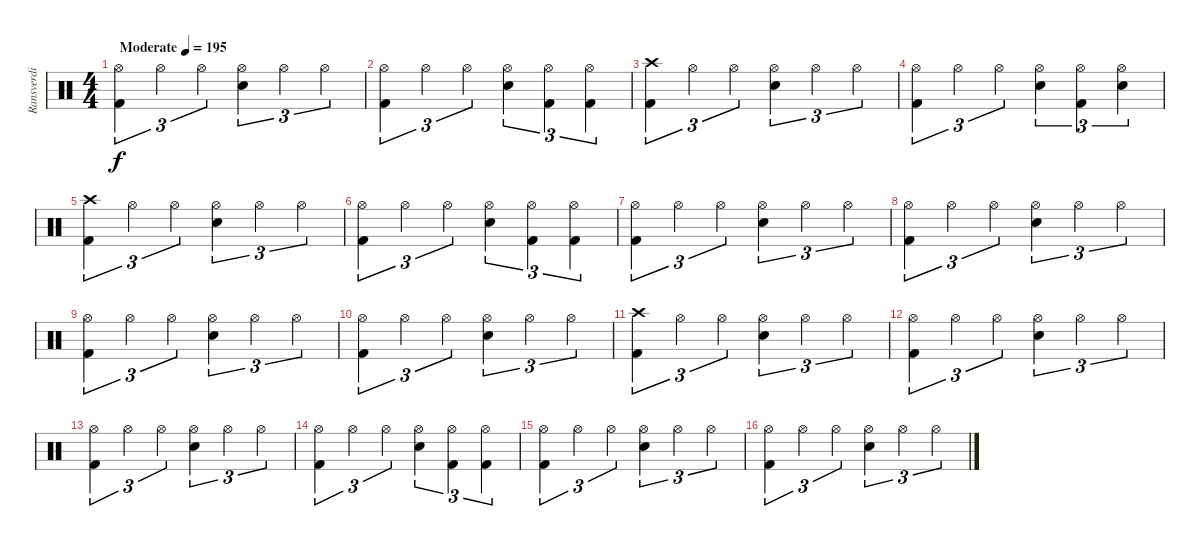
\track ("Ransverdi" "Ransverdi") {instrument percussion}
\staff {score}
\articulation defaults
\ts (4 4)
\tempo (195 "Moderate")
\clef neutral
\ks c
("Hi-Hat (open)" "Kick (hit) 2").4{tu (3 2) dy f} "Hi-Hat (open)".4{tu (3 2)} "Hi-Hat (open)".4{tu (3 2)} ("Hi-Hat (open)" "Snare (hit) 2").4{tu (3 2)} "Hi-Hat (open)".4{tu (3 2)} "Hi-Hat (open)".4{tu (3 2)} |
("Hi-Hat (open)" "Kick (hit) 2").4{tu (3 2)} "Hi-Hat (open)".4{tu (3 2)} "Hi-Hat (open)".4{tu (3 2)} ("Hi-Hat (open)" "Snare (hit) 2").4{tu (3 2)} ("Hi-Hat (open)" "Kick (hit) 2").4{tu (3 2)} ("Hi-Hat (open)" "Kick (hit) 2").4{tu (3 2)} |
("Crash high (hit)" "Kick (hit) 2").4{tu (3 2)} "Hi-Hat (open)".4{tu (3 2)} "Hi-Hat (open)".4{tu (3 2)} ("Hi-Hat (open)" "Snare (hit) 2").4{tu (3 2)} "Hi-Hat (open)".4{tu (3 2)} "Hi-Hat (open)".4{tu (3 2)} |
("Hi-Hat (open)" "Kick (hit) 2").4{tu (3 2)} "Hi-Hat (open)".4{tu (3 2)} "Hi-Hat (open)".4{tu (3 2)} ("Hi-Hat (open)" "Snare (hit) 2").4{tu (3 2)} ("Hi-Hat (open)" "Kick (hit) 2").4{tu (3 2)} ("Hi-Hat (open)" "Snare (hit) 2").4{tu (3 2)} |
("Crash high (hit)" "Kick (hit) 2").4{tu (3 2)} "Hi-Hat (open)".4{tu (3 2)} "Hi-Hat (open)".4{tu (3 2)} ("Hi-Hat (open)" "Snare (hit) 2").4{tu (3 2)} "Hi-Hat (open)".4{tu (3 2)} "Hi-Hat (open)".4{tu (3 2)} |
("Hi-Hat (open)" "Kick (hit) 2").4{tu (3 2)} "Hi-Hat (open)".4{tu (3 2)} "Hi-Hat (open)".4{tu (3 2)} ("Hi-Hat (open)" "Snare (hit) 2").4{tu (3 2)} ("Hi-Hat (open)" "Kick (hit) 2").4{tu (3 2)} ("Hi-Hat (open)" "Kick (hit) 2").4{tu (3 2)} |
("Hi-Hat (open)" "Kick (hit) 2").4{tu (3 2)} "Hi-Hat (open)".4{tu (3 2)} "Hi-Hat (open)".4{tu (3 2)} ("Hi-Hat (open)" "Snare (hit) 2").4{tu (3 2)} "Hi-Hat (open)".4{tu (3 2)} "Hi-Hat (open)".4{tu (3 2)} |
("Hi-Hat (open)" "Kick (hit) 2").4{tu (3 2)} "Hi-Hat (open)".4{tu (3 2)} "Hi-Hat (open)".4{tu (3 2)} ("Hi-Hat (open)" "Snare (hit) 2").4{tu (3 2)} "Hi-Hat (open)".4{tu (3 2)} "Hi-Hat (open)".4{tu (3 2)} |
("Hi-Hat (open)" "Kick (hit) 2").4{tu (3 2)} "Hi-Hat (open)".4{tu (3 2)} "Hi-Hat (open)".4{tu (3 2)} ("Hi-Hat (open)" "Snare (hit) 2").4{tu (3 2)} "Hi-Hat (open)".4{tu (3 2)} "Hi-Hat (open)".4{tu (3 2)} |
("Hi-Hat (open)" "Kick (hit) 2").4{tu (3 2)} "Hi-Hat (open)".4{tu (3 2)} "Hi-Hat (open)".4{tu (3 2)} ("Hi-Hat (open)" "Snare (hit) 2").4{tu (3 2)} "Hi-Hat (open)".4{tu (3 2)} "Hi-Hat (open)".4{tu (3 2)} |
("Crash high (hit)" "Kick (hit) 2").4{tu (3 2)} "Hi-Hat (open)".4{tu (3 2)} "Hi-Hat (open)".4{tu (3 2)} ("Hi-Hat (open)" "Snare (hit) 2").4{tu (3 2)} "Hi-Hat (open)".4{tu (3 2)} "Hi-Hat (open)".4{tu (3 2)} |
("Hi-Hat (open)" "Kick (hit) 2").4{tu (3 2)} "Hi-Hat (open)".4{tu (3 2)} "Hi-Hat (open)".4{tu (3 2)} ("Hi-Hat (open)" "Snare (hit) 2").4{tu (3 2)} "Hi-Hat (open)".4{tu (3 2)} "Hi-Hat (open)".4{tu (3 2)} |
("Hi-Hat (open)" "Kick (hit) 2").4{tu (3 2)} "Hi-Hat (open)".4{tu (3 2)} "Hi-Hat (open)".4{tu (3 2)} ("Hi-Hat (open)" "Snare (hit) 2").4{tu (3 2)} "Hi-Hat (open)".4{tu (3 2)} "Hi-Hat (open)".4{tu (3 2)} |
("Hi-Hat (open)" "Kick (hit) 2").4{tu (3 2)} "Hi-Hat (open)".4{tu (3 2)} "Hi-Hat (open)".4{tu (3 2)} ("Hi-Hat (open)" "Snare (hit) 2").4{tu (3 2)} ("Hi-Hat (open)" "Kick (hit) 2").4{tu (3 2)} ("Hi-Hat (open)" "Kick (hit) 2").4{tu (3 2)} |
("Hi-Hat (open)" "Kick (hit) 2").4{tu (3 2)} "Hi-Hat (open)".4{tu (3 2)} "Hi-Hat (open)".4{tu (3 2)} ("Hi-Hat (open)" "Snare (hit) 2").4{tu (3 2)} "Hi-Hat (open)".4{tu (3 2)} "Hi-Hat (open)".4{tu (3 2)} |
("Hi-Hat (open)" "Kick (hit) 2").4{tu (3 2)} "Hi-Hat (open)".4{tu (3 2)} "Hi-Hat (open)".4{tu (3 2)} ("Hi-Hat (open)" "Snare (hit) 2").4{tu (3 2)} "Hi-Hat (open)".4{tu (3 2)} "Hi-Hat (open)".4{tu (3 2)}
